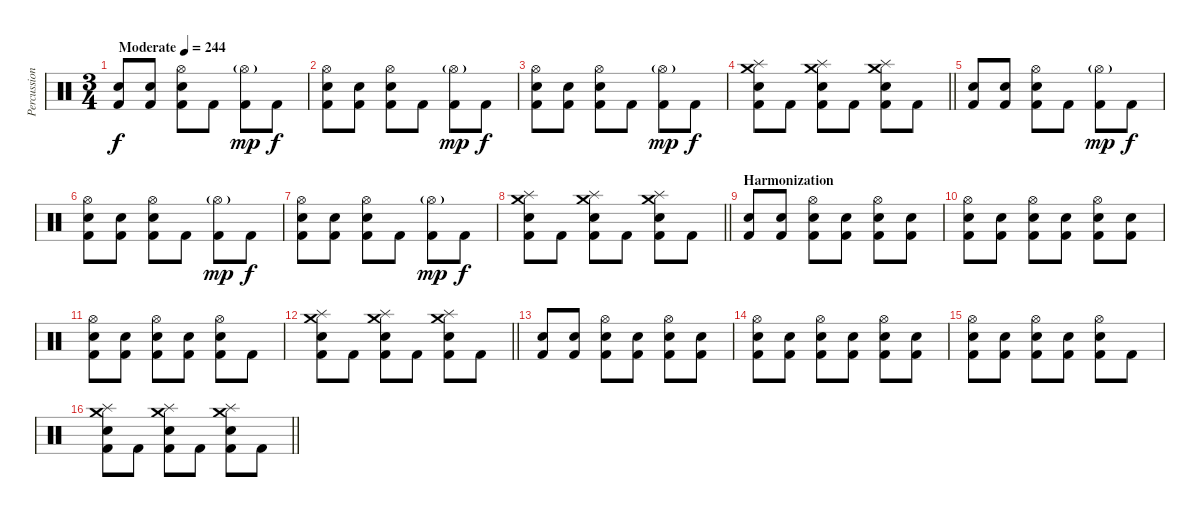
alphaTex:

\track ("Percussion" "Percussion") {instrument percussion}
\staff {score}
\articulation defaults
\ts (3 4)
\tempo (244 "Moderate")
\clef neutral
\ks c
("Electric Snare (hit)" "Kick (hit) 2").8{dy f} ("Electric Snare (hit)" "Kick (hit) 2").8 ("Hi-Hat (open)" "Electric Snare (hit)" "Kick (hit) 2").8 "Kick (hit) 2".8 ("Hi-Hat (open)"{g} "Kick (hit) 2").8{dy mp} "Kick (hit) 2".8{dy f} |
("Hi-Hat (open)" "Electric Snare (hit)" "Kick (hit) 2").8 ("Electric Snare (hit)" "Kick (hit) 2").8 ("Hi-Hat (open)" "Electric Snare (hit)" "Kick (hit) 2").8 "Kick (hit) 2".8 ("Hi-Hat (open)"{g} "Kick (hit) 2").8{dy mp} "Kick (hit) 2".8{dy f} |
("Hi-Hat (open)" "Electric Snare (hit)" "Kick (hit) 2").8 ("Electric Snare (hit)" "Kick (hit) 2").8 ("Hi-Hat (open)" "Electric Snare (hit)" "Kick (hit) 2").8 "Kick (hit) 2".8 ("Hi-Hat (open)"{g} "Kick (hit) 2").8{dy mp} "Kick (hit) 2".8{dy f} |
\barLineRight lightlight
("Crash medium (hit)" "Splash (hit)" "Electric Snare (hit)" "Kick (hit) 2").8 "Kick (hit) 2".8 ("Crash medium (hit)" "Splash (hit)" "Electric Snare (hit)" "Kick (hit) 2").8 "Kick (hit) 2".8 ("Crash medium (hit)" "Splash (hit)" "Electric Snare (hit)" "Kick (hit) 2").8 "Kick (hit) 2".8 |
("Electric Snare (hit)" "Kick (hit) 2").8 ("Electric Snare (hit)" "Kick (hit) 2").8 ("Hi-Hat (open)" "Electric Snare (hit)" "Kick (hit) 2").8 "Kick (hit) 2".8 ("Hi-Hat (open)"{g} "Kick (hit) 2").8{dy mp} "Kick (hit) 2".8{dy f} |
("Hi-Hat (open)" "Electric Snare (hit)" "Kick (hit) 2").8 ("Electric Snare (hit)" "Kick (hit) 2").8 ("Hi-Hat (open)" "Electric Snare (hit)" "Kick (hit) 2").8 "Kick (hit) 2".8 ("Hi-Hat (open)"{g} "Kick (hit) 2").8{dy mp} "Kick (hit) 2".8{dy f} |
("Hi-Hat (open)" "Electric Snare (hit)" "Kick (hit) 2").8 ("Electric Snare (hit)" "Kick (hit) 2").8 ("Hi-Hat (open)" "Electric Snare (hit)" "Kick (hit) 2").8 "Kick (hit) 2".8 ("Hi-Hat (open)"{g} "Kick (hit) 2").8{dy mp} "Kick (hit) 2".8{dy f} |
\barLineRight lightlight
("Crash medium (hit)" "Splash (hit)" "Electric Snare (hit)" "Kick (hit) 2").8 "Kick (hit) 2".8 ("Crash medium (hit)" "Splash (hit)" "Electric Snare (hit)" "Kick (hit) 2").8 "Kick (hit) 2".8 ("Crash medium (hit)" "Splash (hit)" "Electric Snare (hit)" "Kick (hit) 2").8 "Kick (hit) 2".8 |
\section ("" "Harmonization")
("Electric Snare (hit)" "Kick (hit) 2").8 ("Electric Snare (hit)" "Kick (hit) 2").8 ("Hi-Hat (open)" "Electric Snare (hit)" "Kick (hit) 2").8 ("Electric Snare (hit)" "Kick (hit) 2").8 ("Hi-Hat (open)" "Electric Snare (hit)" "Kick (hit) 2").8 ("Electric Snare (hit)" "Kick (hit) 2").8 |
("Hi-Hat (open)" "Electric Snare (hit)" "Kick (hit) 2").8 ("Electric Snare (hit)" "Kick (hit) 2").8 ("Hi-Hat (open)" "Electric Snare (hit)" "Kick (hit) 2").8 ("Electric Snare (hit)" "Kick (hit) 2").8 ("Hi-Hat (open)" "Electric Snare (hit)" "Kick (hit) 2").8 ("Electric Snare (hit)" "Kick (hit) 2").8 |
("Hi-Hat (open)" "Electric Snare (hit)" "Kick (hit) 2").8 ("Electric Snare (hit)" "Kick (hit) 2").8 ("Hi-Hat (open)" "Electric Snare (hit)" "Kick (hit) 2").8 ("Electric Snare (hit)" "Kick (hit) 2").8 ("Hi-Hat (open)" "Electric Snare (hit)" "Kick (hit) 2").8 "Kick (hit) 2".8 |
\barLineRight lightlight
("Crash medium (hit)" "Splash (hit)" "Electric Snare (hit)" "Kick (hit) 2").8 "Kick (hit) 2".8 ("Crash medium (hit)" "Splash (hit)" "Electric Snare (hit)" "Kick (hit) 2").8 "Kick (hit) 2".8 ("Crash medium (hit)" "Splash (hit)" "Electric Snare (hit)" "Kick (hit) 2").8 "Kick (hit) 2".8 |
("Electric Snare (hit)" "Kick (hit) 2").8 ("Electric Snare (hit)" "Kick (hit) 2").8 ("Hi-Hat (open)" "Electric Snare (hit)" "Kick (hit) 2").8 ("Electric Snare (hit)" "Kick (hit) 2").8 ("Hi-Hat (open)" "Electric Snare (hit)" "Kick (hit) 2").8 ("Electric Snare (hit)" "Kick (hit) 2").8 |
("Hi-Hat (open)" "Electric Snare (hit)" "Kick (hit) 2").8 ("Electric Snare (hit)" "Kick (hit) 2").8 ("Hi-Hat (open)" "Electric Snare (hit)" "Kick (hit) 2").8 ("Electric Snare (hit)" "Kick (hit) 2").8 ("Hi-Hat (open)" "Electric Snare (hit)" "Kick (hit) 2").8 ("Electric Snare (hit)" "Kick (hit) 2").8 |
("Hi-Hat (open)" "Electric Snare (hit)" "Kick (hit) 2").8 ("Electric Snare (hit)" "Kick (hit) 2").8 ("Hi-Hat (open)" "Electric Snare (hit)" "Kick (hit) 2").8 ("Electric Snare (hit)" "Kick (hit) 2").8 ("Hi-Hat (open)" "Electric Snare (hit)" "Kick (hit) 2").8 "Kick (hit) 2".8 |
\barLineRight lightlight
("Crash medium (hit)" "Splash (hit)" "Electric Snare (hit)" "Kick (hit) 2").8 "Kick (hit) 2".8 ("Crash medium (hit)" "Splash (hit)" "Electric Snare (hit)" "Kick (hit) 2").8 "Kick (hit) 2".8 ("Crash medium (hit)" "Splash (hit)" "Electric Snare (hit)" "Kick (hit) 2").8 "Kick (hit) 2".8
